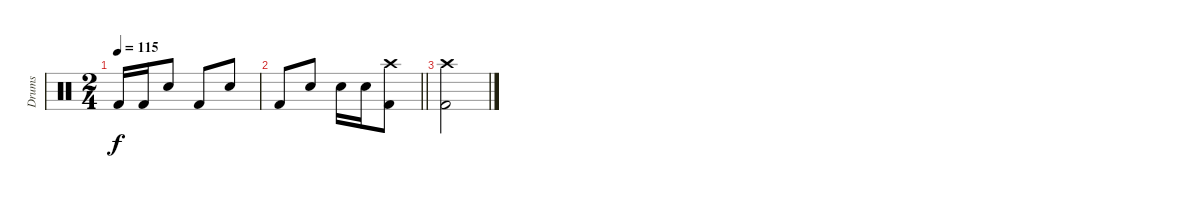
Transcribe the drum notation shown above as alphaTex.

\track ("Drums" "Drums") {instrument percussion}
\staff {score}
\articulation defaults
\ts (2 4)
\tempo 115
\clef neutral
\ks c "Kick (hit) 2".16{dy f} "Kick (hit) 2".16 "Electric Snare (hit)".8 "Kick (hit) 2".8 "Electric Snare (hit)".8
|
\barLineRight lightlight "Kick (hit) 2".8 "Electric Snare (hit)".8 "Electric Snare (hit)".16 "Electric Snare (hit)".16
("Crash high (hit)" "Kick (hit) 2").8 |
("Crash high (hit)" "Kick (hit) 2").2
